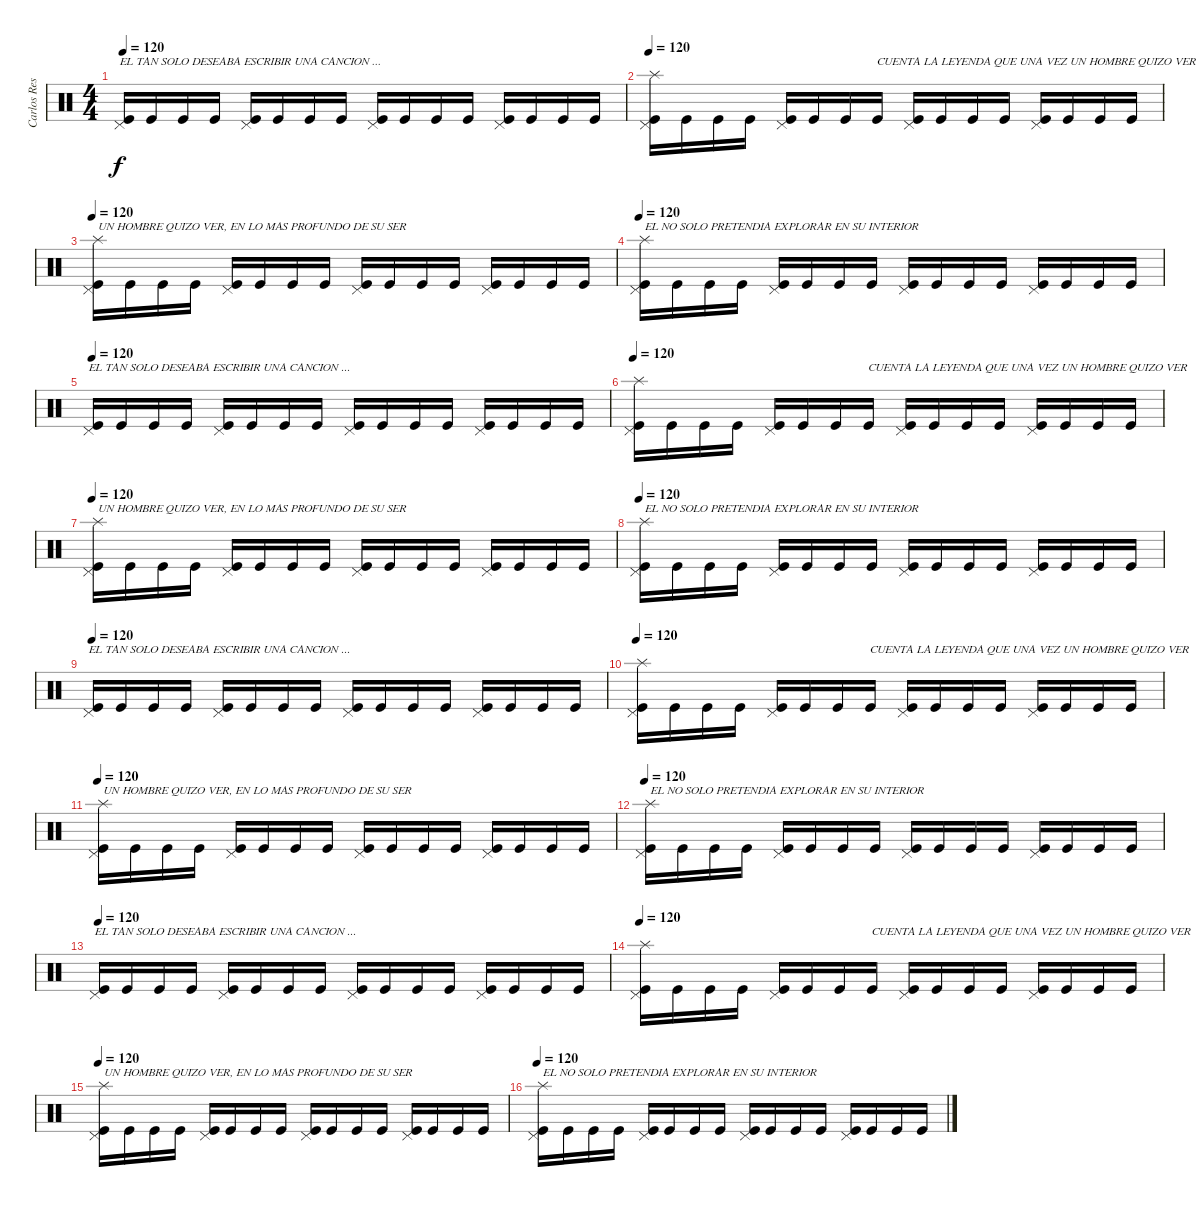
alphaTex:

\track ("Carlos Restrepo" "Carlos Res") {instrument percussion}
\staff {score}
\articulation defaults
\ts (4 4)
\tempo 120
\clef neutral
\ks c
("Kick (hit)" "Pedal Hi-Hat (hit)").16{txt "EL TAN SOLO DESEABA ESCRIBIR UNA CANCION ..." dy f} "Kick (hit)".16 "Kick (hit)".16 "Kick (hit)".16 ("Kick (hit)" "Pedal Hi-Hat (hit)").16 "Kick (hit)".16 "Kick (hit)".16 "Kick (hit)".16 ("Kick (hit)" "Pedal Hi-Hat (hit)").16 "Kick (hit)".16 "Kick (hit)".16 "Kick (hit)".16 ("Kick (hit)" "Pedal Hi-Hat (hit)").16 "Kick (hit)".16 "Kick (hit)".16 "Kick (hit)".16 |
\tempo 120
("Kick (hit)" "Splash (hit)" "Pedal Hi-Hat (hit)").16 "Kick (hit)".16 "Kick (hit)".16 "Kick (hit)".16 ("Kick (hit)" "Pedal Hi-Hat (hit)").16 "Kick (hit)".16 "Kick (hit)".16 "Kick (hit)".16{txt "CUENTA LA LEYENDA QUE UNA VEZ UN HOMBRE QUIZO VER"} ("Kick (hit)" "Pedal Hi-Hat (hit)").16 "Kick (hit)".16 "Kick (hit)".16 "Kick (hit)".16 ("Kick (hit)" "Pedal Hi-Hat (hit)").16 "Kick (hit)".16 "Kick (hit)".16 "Kick (hit)".16 |
\tempo 120
("Kick (hit)" "Splash (hit)" "Pedal Hi-Hat (hit)").16{txt "UN HOMBRE QUIZO VER, EN LO MAS PROFUNDO DE SU SER"} "Kick (hit)".16 "Kick (hit)".16 "Kick (hit)".16 ("Kick (hit)" "Pedal Hi-Hat (hit)").16 "Kick (hit)".16 "Kick (hit)".16 "Kick (hit)".16 ("Kick (hit)" "Pedal Hi-Hat (hit)").16 "Kick (hit)".16 "Kick (hit)".16 "Kick (hit)".16 ("Kick (hit)" "Pedal Hi-Hat (hit)").16 "Kick (hit)".16 "Kick (hit)".16 "Kick (hit)".16 |
\tempo 120
("Kick (hit)" "Splash (hit)" "Pedal Hi-Hat (hit)").16{txt "EL NO SOLO PRETENDIA EXPLORAR EN SU INTERIOR"} "Kick (hit)".16 "Kick (hit)".16 "Kick (hit)".16 ("Kick (hit)" "Pedal Hi-Hat (hit)").16 "Kick (hit)".16 "Kick (hit)".16 "Kick (hit)".16 ("Kick (hit)" "Pedal Hi-Hat (hit)").16 "Kick (hit)".16 "Kick (hit)".16 "Kick (hit)".16 ("Kick (hit)" "Pedal Hi-Hat (hit)").16 "Kick (hit)".16 "Kick (hit)".16 "Kick (hit)".16 |
\tempo 120
("Kick (hit)" "Pedal Hi-Hat (hit)").16{txt "EL TAN SOLO DESEABA ESCRIBIR UNA CANCION ..."} "Kick (hit)".16 "Kick (hit)".16 "Kick (hit)".16 ("Kick (hit)" "Pedal Hi-Hat (hit)").16 "Kick (hit)".16 "Kick (hit)".16 "Kick (hit)".16 ("Kick (hit)" "Pedal Hi-Hat (hit)").16 "Kick (hit)".16 "Kick (hit)".16 "Kick (hit)".16 ("Kick (hit)" "Pedal Hi-Hat (hit)").16 "Kick (hit)".16 "Kick (hit)".16 "Kick (hit)".16 |
\tempo 120
("Kick (hit)" "Splash (hit)" "Pedal Hi-Hat (hit)").16 "Kick (hit)".16 "Kick (hit)".16 "Kick (hit)".16 ("Kick (hit)" "Pedal Hi-Hat (hit)").16 "Kick (hit)".16 "Kick (hit)".16 "Kick (hit)".16{txt "CUENTA LA LEYENDA QUE UNA VEZ UN HOMBRE QUIZO VER"} ("Kick (hit)" "Pedal Hi-Hat (hit)").16 "Kick (hit)".16 "Kick (hit)".16 "Kick (hit)".16 ("Kick (hit)" "Pedal Hi-Hat (hit)").16 "Kick (hit)".16 "Kick (hit)".16 "Kick (hit)".16 |
\tempo 120
("Kick (hit)" "Splash (hit)" "Pedal Hi-Hat (hit)").16{txt "UN HOMBRE QUIZO VER, EN LO MAS PROFUNDO DE SU SER"} "Kick (hit)".16 "Kick (hit)".16 "Kick (hit)".16 ("Kick (hit)" "Pedal Hi-Hat (hit)").16 "Kick (hit)".16 "Kick (hit)".16 "Kick (hit)".16 ("Kick (hit)" "Pedal Hi-Hat (hit)").16 "Kick (hit)".16 "Kick (hit)".16 "Kick (hit)".16 ("Kick (hit)" "Pedal Hi-Hat (hit)").16 "Kick (hit)".16 "Kick (hit)".16 "Kick (hit)".16 |
\tempo 120
("Kick (hit)" "Splash (hit)" "Pedal Hi-Hat (hit)").16{txt "EL NO SOLO PRETENDIA EXPLORAR EN SU INTERIOR"} "Kick (hit)".16 "Kick (hit)".16 "Kick (hit)".16 ("Kick (hit)" "Pedal Hi-Hat (hit)").16 "Kick (hit)".16 "Kick (hit)".16 "Kick (hit)".16 ("Kick (hit)" "Pedal Hi-Hat (hit)").16 "Kick (hit)".16 "Kick (hit)".16 "Kick (hit)".16 ("Kick (hit)" "Pedal Hi-Hat (hit)").16 "Kick (hit)".16 "Kick (hit)".16 "Kick (hit)".16 |
\tempo 120
("Kick (hit)" "Pedal Hi-Hat (hit)").16{txt "EL TAN SOLO DESEABA ESCRIBIR UNA CANCION ..."} "Kick (hit)".16 "Kick (hit)".16 "Kick (hit)".16 ("Kick (hit)" "Pedal Hi-Hat (hit)").16 "Kick (hit)".16 "Kick (hit)".16 "Kick (hit)".16 ("Kick (hit)" "Pedal Hi-Hat (hit)").16 "Kick (hit)".16 "Kick (hit)".16 "Kick (hit)".16 ("Kick (hit)" "Pedal Hi-Hat (hit)").16 "Kick (hit)".16 "Kick (hit)".16 "Kick (hit)".16 |
\tempo 120
("Kick (hit)" "Splash (hit)" "Pedal Hi-Hat (hit)").16 "Kick (hit)".16 "Kick (hit)".16 "Kick (hit)".16 ("Kick (hit)" "Pedal Hi-Hat (hit)").16 "Kick (hit)".16 "Kick (hit)".16 "Kick (hit)".16{txt "CUENTA LA LEYENDA QUE UNA VEZ UN HOMBRE QUIZO VER"} ("Kick (hit)" "Pedal Hi-Hat (hit)").16 "Kick (hit)".16 "Kick (hit)".16 "Kick (hit)".16 ("Kick (hit)" "Pedal Hi-Hat (hit)").16 "Kick (hit)".16 "Kick (hit)".16 "Kick (hit)".16 |
\tempo 120
("Kick (hit)" "Splash (hit)" "Pedal Hi-Hat (hit)").16{txt "UN HOMBRE QUIZO VER, EN LO MAS PROFUNDO DE SU SER"} "Kick (hit)".16 "Kick (hit)".16 "Kick (hit)".16 ("Kick (hit)" "Pedal Hi-Hat (hit)").16 "Kick (hit)".16 "Kick (hit)".16 "Kick (hit)".16 ("Kick (hit)" "Pedal Hi-Hat (hit)").16 "Kick (hit)".16 "Kick (hit)".16 "Kick (hit)".16 ("Kick (hit)" "Pedal Hi-Hat (hit)").16 "Kick (hit)".16 "Kick (hit)".16 "Kick (hit)".16 |
\tempo 120
("Kick (hit)" "Splash (hit)" "Pedal Hi-Hat (hit)").16{txt "EL NO SOLO PRETENDIA EXPLORAR EN SU INTERIOR"} "Kick (hit)".16 "Kick (hit)".16 "Kick (hit)".16 ("Kick (hit)" "Pedal Hi-Hat (hit)").16 "Kick (hit)".16 "Kick (hit)".16 "Kick (hit)".16 ("Kick (hit)" "Pedal Hi-Hat (hit)").16 "Kick (hit)".16 "Kick (hit)".16 "Kick (hit)".16 ("Kick (hit)" "Pedal Hi-Hat (hit)").16 "Kick (hit)".16 "Kick (hit)".16 "Kick (hit)".16 |
\tempo 120
("Kick (hit)" "Pedal Hi-Hat (hit)").16{txt "EL TAN SOLO DESEABA ESCRIBIR UNA CANCION ..."} "Kick (hit)".16 "Kick (hit)".16 "Kick (hit)".16 ("Kick (hit)" "Pedal Hi-Hat (hit)").16 "Kick (hit)".16 "Kick (hit)".16 "Kick (hit)".16 ("Kick (hit)" "Pedal Hi-Hat (hit)").16 "Kick (hit)".16 "Kick (hit)".16 "Kick (hit)".16 ("Kick (hit)" "Pedal Hi-Hat (hit)").16 "Kick (hit)".16 "Kick (hit)".16 "Kick (hit)".16 |
\tempo 120
("Kick (hit)" "Splash (hit)" "Pedal Hi-Hat (hit)").16 "Kick (hit)".16 "Kick (hit)".16 "Kick (hit)".16 ("Kick (hit)" "Pedal Hi-Hat (hit)").16 "Kick (hit)".16 "Kick (hit)".16 "Kick (hit)".16{txt "CUENTA LA LEYENDA QUE UNA VEZ UN HOMBRE QUIZO VER"} ("Kick (hit)" "Pedal Hi-Hat (hit)").16 "Kick (hit)".16 "Kick (hit)".16 "Kick (hit)".16 ("Kick (hit)" "Pedal Hi-Hat (hit)").16 "Kick (hit)".16 "Kick (hit)".16 "Kick (hit)".16 |
\tempo 120
("Kick (hit)" "Splash (hit)" "Pedal Hi-Hat (hit)").16{txt "UN HOMBRE QUIZO VER, EN LO MAS PROFUNDO DE SU SER"} "Kick (hit)".16 "Kick (hit)".16 "Kick (hit)".16 ("Kick (hit)" "Pedal Hi-Hat (hit)").16 "Kick (hit)".16 "Kick (hit)".16 "Kick (hit)".16 ("Kick (hit)" "Pedal Hi-Hat (hit)").16 "Kick (hit)".16 "Kick (hit)".16 "Kick (hit)".16 ("Kick (hit)" "Pedal Hi-Hat (hit)").16 "Kick (hit)".16 "Kick (hit)".16 "Kick (hit)".16 |
\tempo 120
("Kick (hit)" "Splash (hit)" "Pedal Hi-Hat (hit)").16{txt "EL NO SOLO PRETENDIA EXPLORAR EN SU INTERIOR"} "Kick (hit)".16 "Kick (hit)".16 "Kick (hit)".16 ("Kick (hit)" "Pedal Hi-Hat (hit)").16 "Kick (hit)".16 "Kick (hit)".16 "Kick (hit)".16 ("Kick (hit)" "Pedal Hi-Hat (hit)").16 "Kick (hit)".16 "Kick (hit)".16 "Kick (hit)".16 ("Kick (hit)" "Pedal Hi-Hat (hit)").16 "Kick (hit)".16 "Kick (hit)".16 "Kick (hit)".16
